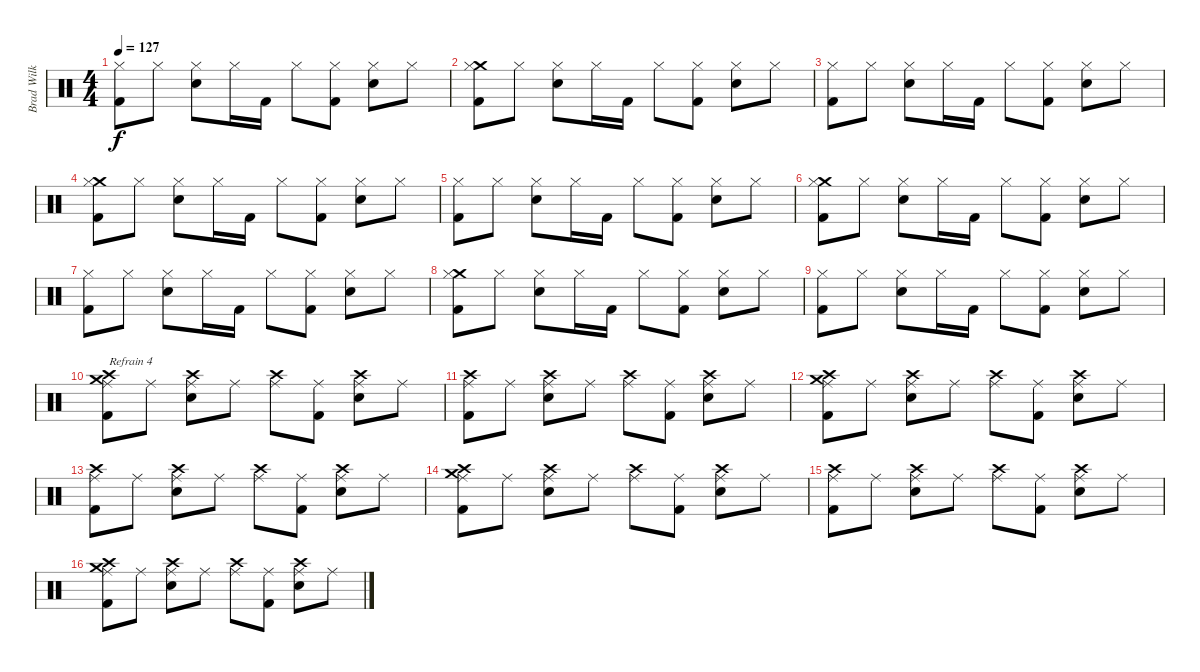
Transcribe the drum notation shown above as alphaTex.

\track ("Brad Wilk" "Brad Wilk") {instrument percussion}
\staff {score}
\articulation defaults
\ts (4 4)
\tempo 127
\clef neutral
\ks c
("Hi-Hat (closed)" "Kick (hit) 2").8{dy f} "Hi-Hat (closed)".8 ("Electric Snare (hit)" "Hi-Hat (closed)").8 "Hi-Hat (closed)".16 "Kick (hit) 2".16 "Hi-Hat (closed)".8 ("Hi-Hat (closed)" "Kick (hit) 2").8 ("Electric Snare (hit)" "Hi-Hat (closed)").8 "Hi-Hat (closed)".8 |
("Crash medium (hit)" "Hi-Hat (closed)" "Kick (hit) 2").8 "Hi-Hat (closed)".8 ("Electric Snare (hit)" "Hi-Hat (closed)").8 "Hi-Hat (closed)".16 "Kick (hit) 2".16 "Hi-Hat (closed)".8 ("Hi-Hat (closed)" "Kick (hit) 2").8 ("Electric Snare (hit)" "Hi-Hat (closed)").8 "Hi-Hat (closed)".8 |
("Hi-Hat (closed)" "Kick (hit) 2").8 "Hi-Hat (closed)".8 ("Electric Snare (hit)" "Hi-Hat (closed)").8 "Hi-Hat (closed)".16 "Kick (hit) 2".16 "Hi-Hat (closed)".8 ("Hi-Hat (closed)" "Kick (hit) 2").8 ("Electric Snare (hit)" "Hi-Hat (closed)").8 "Hi-Hat (closed)".8 |
("Crash medium (hit)" "Hi-Hat (closed)" "Kick (hit) 2").8 "Hi-Hat (closed)".8 ("Electric Snare (hit)" "Hi-Hat (closed)").8 "Hi-Hat (closed)".16 "Kick (hit) 2".16 "Hi-Hat (closed)".8 ("Hi-Hat (closed)" "Kick (hit) 2").8 ("Electric Snare (hit)" "Hi-Hat (closed)").8 "Hi-Hat (closed)".8 |
("Hi-Hat (closed)" "Kick (hit) 2").8 "Hi-Hat (closed)".8 ("Electric Snare (hit)" "Hi-Hat (closed)").8 "Hi-Hat (closed)".16 "Kick (hit) 2".16 "Hi-Hat (closed)".8 ("Hi-Hat (closed)" "Kick (hit) 2").8 ("Electric Snare (hit)" "Hi-Hat (closed)").8 "Hi-Hat (closed)".8 |
("Crash medium (hit)" "Hi-Hat (closed)" "Kick (hit) 2").8 "Hi-Hat (closed)".8 ("Electric Snare (hit)" "Hi-Hat (closed)").8 "Hi-Hat (closed)".16 "Kick (hit) 2".16 "Hi-Hat (closed)".8 ("Hi-Hat (closed)" "Kick (hit) 2").8 ("Electric Snare (hit)" "Hi-Hat (closed)").8 "Hi-Hat (closed)".8 |
("Hi-Hat (closed)" "Kick (hit) 2").8 "Hi-Hat (closed)".8 ("Electric Snare (hit)" "Hi-Hat (closed)").8 "Hi-Hat (closed)".16 "Kick (hit) 2".16 "Hi-Hat (closed)".8 ("Hi-Hat (closed)" "Kick (hit) 2").8 ("Electric Snare (hit)" "Hi-Hat (closed)").8 "Hi-Hat (closed)".8 |
("Crash medium (hit)" "Hi-Hat (closed)" "Kick (hit) 2").8 "Hi-Hat (closed)".8 ("Electric Snare (hit)" "Hi-Hat (closed)").8 "Hi-Hat (closed)".16 "Kick (hit) 2".16 "Hi-Hat (closed)".8 ("Hi-Hat (closed)" "Kick (hit) 2").8 ("Electric Snare (hit)" "Hi-Hat (closed)").8 "Hi-Hat (closed)".8 |
("Hi-Hat (closed)" "Kick (hit) 2").8 "Hi-Hat (closed)".8 ("Electric Snare (hit)" "Hi-Hat (closed)").8 "Hi-Hat (closed)".16 "Kick (hit) 2".16 "Hi-Hat (closed)".8 ("Hi-Hat (closed)" "Kick (hit) 2").8 ("Electric Snare (hit)" "Hi-Hat (closed)").8 "Hi-Hat (closed)".8 |
("Crash medium (hit)" "Crash high (hit)" "Ride (middle)" "Kick (hit) 2").8{txt "Refrain 4"} "Ride (middle)".8 ("Crash high (hit)" "Electric Snare (hit)" "Ride (middle)").8 "Ride (middle)".8 ("Crash high (hit)" "Ride (middle)").8 ("Ride (middle)" "Kick (hit) 2").8 ("Crash high (hit)" "Electric Snare (hit)" "Ride (middle)").8 "Ride (middle)".8 |
("Crash high (hit)" "Ride (middle)" "Kick (hit) 2").8 "Ride (middle)".8 ("Crash high (hit)" "Electric Snare (hit)" "Ride (middle)").8 "Ride (middle)".8 ("Crash high (hit)" "Ride (middle)").8 ("Ride (middle)" "Kick (hit) 2").8 ("Crash high (hit)" "Electric Snare (hit)" "Ride (middle)").8 "Ride (middle)".8 |
("Crash medium (hit)" "Crash high (hit)" "Ride (middle)" "Kick (hit) 2").8 "Ride (middle)".8 ("Crash high (hit)" "Electric Snare (hit)" "Ride (middle)").8 "Ride (middle)".8 ("Crash high (hit)" "Ride (middle)").8 ("Ride (middle)" "Kick (hit) 2").8 ("Crash high (hit)" "Electric Snare (hit)" "Ride (middle)").8 "Ride (middle)".8 |
("Crash high (hit)" "Ride (middle)" "Kick (hit) 2").8 "Ride (middle)".8 ("Crash high (hit)" "Electric Snare (hit)" "Ride (middle)").8 "Ride (middle)".8 ("Crash high (hit)" "Ride (middle)").8 ("Ride (middle)" "Kick (hit) 2").8 ("Crash high (hit)" "Electric Snare (hit)" "Ride (middle)").8 "Ride (middle)".8 |
("Crash medium (hit)" "Crash high (hit)" "Ride (middle)" "Kick (hit) 2").8 "Ride (middle)".8 ("Crash high (hit)" "Electric Snare (hit)" "Ride (middle)").8 "Ride (middle)".8 ("Crash high (hit)" "Ride (middle)").8 ("Ride (middle)" "Kick (hit) 2").8 ("Crash high (hit)" "Electric Snare (hit)" "Ride (middle)").8 "Ride (middle)".8 |
("Crash high (hit)" "Ride (middle)" "Kick (hit) 2").8 "Ride (middle)".8 ("Crash high (hit)" "Electric Snare (hit)" "Ride (middle)").8 "Ride (middle)".8 ("Crash high (hit)" "Ride (middle)").8 ("Ride (middle)" "Kick (hit) 2").8 ("Crash high (hit)" "Electric Snare (hit)" "Ride (middle)").8 "Ride (middle)".8 |
("Crash medium (hit)" "Crash high (hit)" "Ride (middle)" "Kick (hit) 2").8 "Ride (middle)".8 ("Crash high (hit)" "Electric Snare (hit)" "Ride (middle)").8 "Ride (middle)".8 ("Crash high (hit)" "Ride (middle)").8 ("Ride (middle)" "Kick (hit) 2").8 ("Crash high (hit)" "Electric Snare (hit)" "Ride (middle)").8 "Ride (middle)".8
